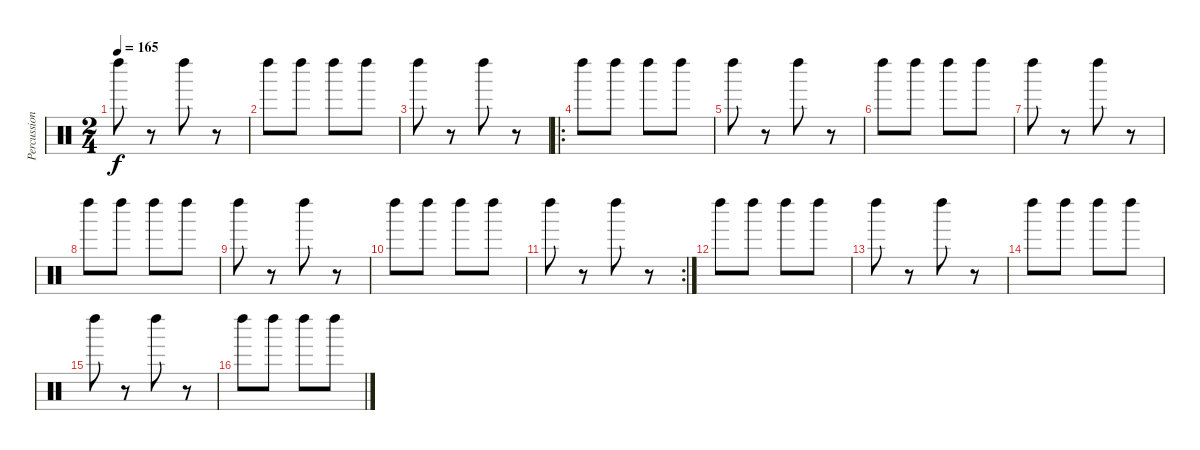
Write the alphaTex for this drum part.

\track ("Percussion" "Percussion") {instrument percussion}
\staff {score}
\articulation defaults
\ts (2 4)
\tempo 165
\clef neutral
\ks c "Left Maraca (hit)".8{dy f}
r.8 "Left Maraca (hit)".8 r.8 |
"Left Maraca (hit)".8 "Left Maraca (hit)".8 "Left Maraca (hit)".8 "Left Maraca (hit)".8 |
"Left Maraca (hit)".8 r.8 "Left Maraca (hit)".8 r.8 |
\ro "Left Maraca (hit)".8 "Left Maraca (hit)".8 "Left Maraca (hit)".8 "Left Maraca (hit)".8
|
"Left Maraca (hit)".8 r.8 "Left Maraca (hit)".8 r.8 |
"Left Maraca (hit)".8 "Left Maraca (hit)".8 "Left Maraca (hit)".8 "Left Maraca (hit)".8 |
"Left Maraca (hit)".8 r.8 "Left Maraca (hit)".8 r.8 |
"Left Maraca (hit)".8 "Left Maraca (hit)".8 "Left Maraca (hit)".8 "Left Maraca (hit)".8 |
"Left Maraca (hit)".8 r.8 "Left Maraca (hit)".8 r.8 |
"Left Maraca (hit)".8 "Left Maraca (hit)".8 "Left Maraca (hit)".8 "Left Maraca (hit)".8 |
\rc 2 "Left Maraca (hit)".8
r.8 "Left Maraca (hit)".8 r.8 |
"Left Maraca (hit)".8 "Left Maraca (hit)".8 "Left Maraca (hit)".8 "Left Maraca (hit)".8 |
"Left Maraca (hit)".8 r.8 "Left Maraca (hit)".8 r.8 |
"Left Maraca (hit)".8 "Left Maraca (hit)".8 "Left Maraca (hit)".8 "Left Maraca (hit)".8 |
"Left Maraca (hit)".8 r.8 "Left Maraca (hit)".8 r.8 |
"Left Maraca (hit)".8 "Left Maraca (hit)".8 "Left Maraca (hit)".8 "Left Maraca (hit)".8
